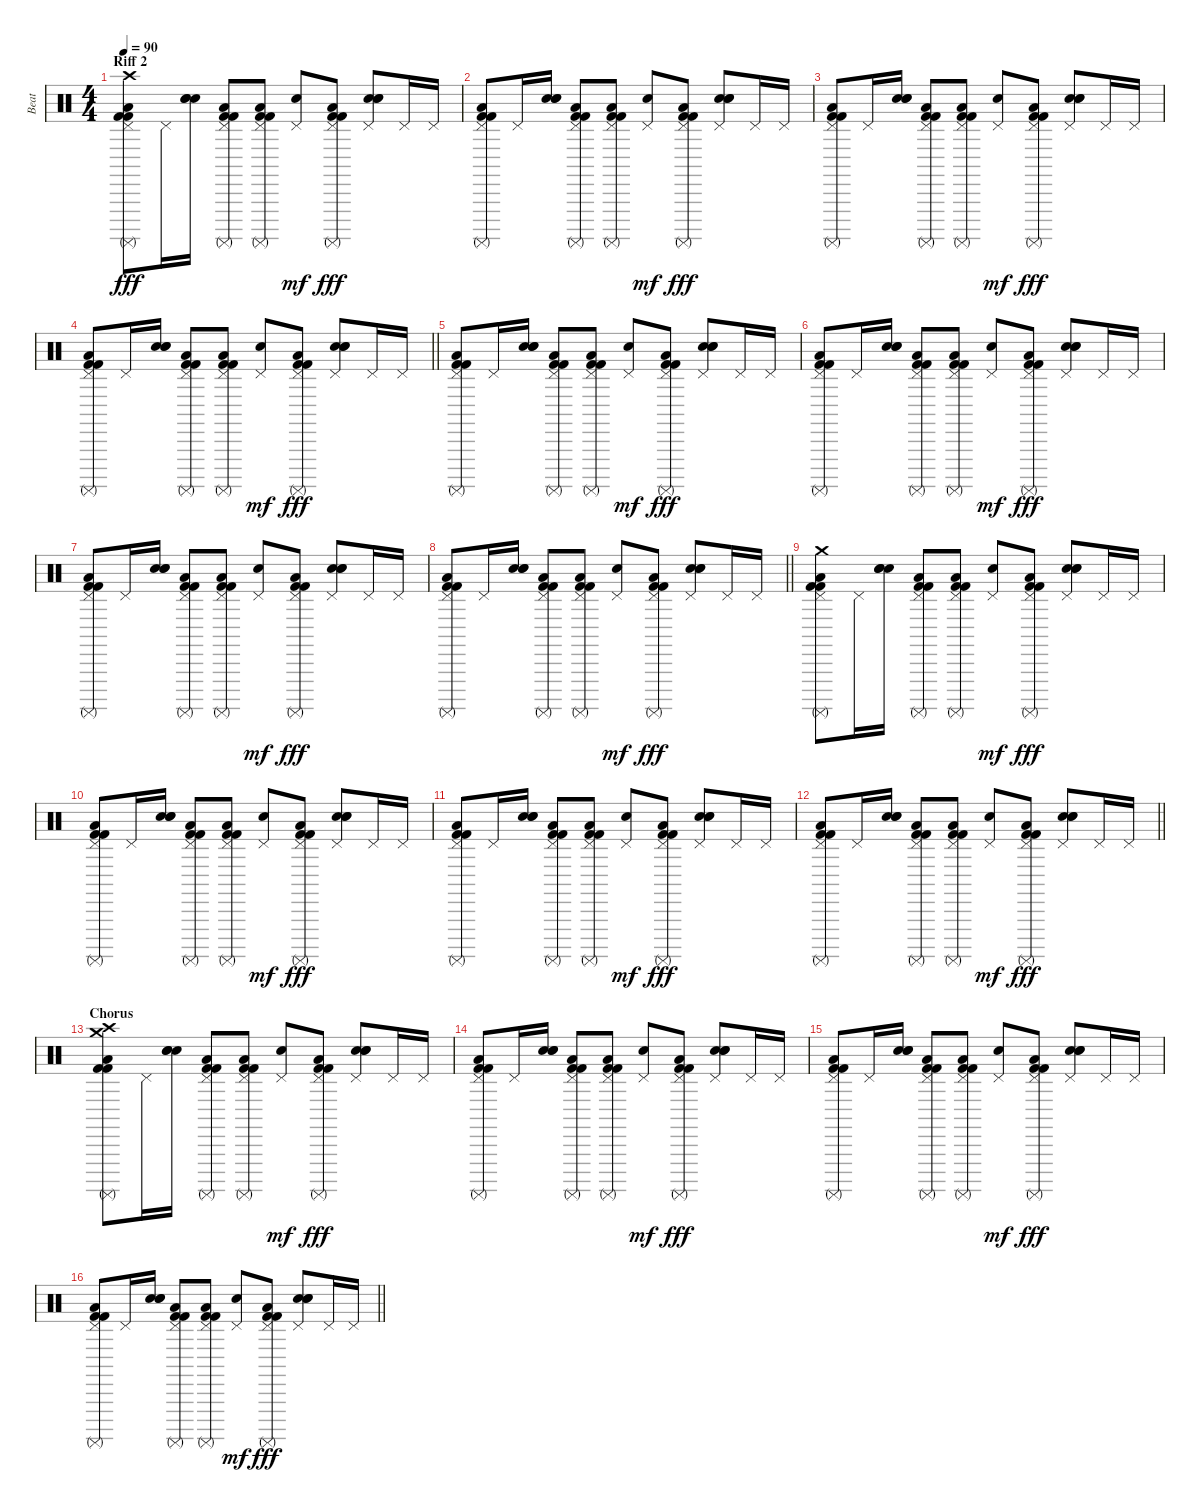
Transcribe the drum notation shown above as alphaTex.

\track ("Beat " "Beat ") {instrument percussion}
\staff {score}
\articulation defaults
\ts (4 4)
\section ("" "Riff 2")
\tempo 90
\clef neutral
\ks c
("Crash high (hit)" "Pedal Hi-Hat (hit)" "Surdo (mute)" "Low Floor Tom (hit)" "Kick (hit) 2" "Kick (hit) 2").8{dy fff} "Pedal Hi-Hat (hit)".16 ("Electric Snare (hit)" "Electric Snare (hit)" "Electric Snare (hit)").16 ("Pedal Hi-Hat (hit)" "Surdo (mute)" "Low Floor Tom (hit)" "Kick (hit) 2" "Kick (hit) 2").8 ("Pedal Hi-Hat (hit)" "Surdo (mute)" "Low Floor Tom (hit)" "Kick (hit) 2" "Kick (hit) 2").8 ("Pedal Hi-Hat (hit)" "Electric Snare (hit)").8{dy mf} ("Pedal Hi-Hat (hit)" "Surdo (mute)" "Low Floor Tom (hit)" "Kick (hit) 2" "Kick (hit) 2").8{dy fff} ("Pedal Hi-Hat (hit)" "Electric Snare (hit)" "Electric Snare (hit)" "Electric Snare (hit)").8 "Pedal Hi-Hat (hit)".16 "Pedal Hi-Hat (hit)".16 |
("Pedal Hi-Hat (hit)" "Surdo (mute)" "Low Floor Tom (hit)" "Kick (hit) 2" "Kick (hit) 2").8 "Pedal Hi-Hat (hit)".16 ("Electric Snare (hit)" "Electric Snare (hit)" "Electric Snare (hit)").16 ("Pedal Hi-Hat (hit)" "Surdo (mute)" "Low Floor Tom (hit)" "Kick (hit) 2" "Kick (hit) 2").8 ("Pedal Hi-Hat (hit)" "Surdo (mute)" "Low Floor Tom (hit)" "Kick (hit) 2" "Kick (hit) 2").8 ("Pedal Hi-Hat (hit)" "Electric Snare (hit)").8{dy mf} ("Pedal Hi-Hat (hit)" "Surdo (mute)" "Low Floor Tom (hit)" "Kick (hit) 2" "Kick (hit) 2").8{dy fff} ("Pedal Hi-Hat (hit)" "Electric Snare (hit)" "Electric Snare (hit)" "Electric Snare (hit)").8 "Pedal Hi-Hat (hit)".16 "Pedal Hi-Hat (hit)".16 |
("Pedal Hi-Hat (hit)" "Surdo (mute)" "Low Floor Tom (hit)" "Kick (hit) 2" "Kick (hit) 2").8 "Pedal Hi-Hat (hit)".16 ("Electric Snare (hit)" "Electric Snare (hit)" "Electric Snare (hit)").16 ("Pedal Hi-Hat (hit)" "Surdo (mute)" "Low Floor Tom (hit)" "Kick (hit) 2" "Kick (hit) 2").8 ("Pedal Hi-Hat (hit)" "Surdo (mute)" "Low Floor Tom (hit)" "Kick (hit) 2" "Kick (hit) 2").8 ("Pedal Hi-Hat (hit)" "Electric Snare (hit)").8{dy mf} ("Pedal Hi-Hat (hit)" "Surdo (mute)" "Low Floor Tom (hit)" "Kick (hit) 2" "Kick (hit) 2").8{dy fff} ("Pedal Hi-Hat (hit)" "Electric Snare (hit)" "Electric Snare (hit)" "Electric Snare (hit)").8 "Pedal Hi-Hat (hit)".16 "Pedal Hi-Hat (hit)".16 |
\barLineRight lightlight
("Pedal Hi-Hat (hit)" "Surdo (mute)" "Low Floor Tom (hit)" "Kick (hit) 2" "Kick (hit) 2").8 "Pedal Hi-Hat (hit)".16 ("Electric Snare (hit)" "Electric Snare (hit)" "Electric Snare (hit)").16 ("Pedal Hi-Hat (hit)" "Surdo (mute)" "Low Floor Tom (hit)" "Kick (hit) 2" "Kick (hit) 2").8 ("Pedal Hi-Hat (hit)" "Surdo (mute)" "Low Floor Tom (hit)" "Kick (hit) 2" "Kick (hit) 2").8 ("Pedal Hi-Hat (hit)" "Electric Snare (hit)").8{dy mf} ("Pedal Hi-Hat (hit)" "Surdo (mute)" "Low Floor Tom (hit)" "Kick (hit) 2" "Kick (hit) 2").8{dy fff} ("Pedal Hi-Hat (hit)" "Electric Snare (hit)" "Electric Snare (hit)" "Electric Snare (hit)").8 "Pedal Hi-Hat (hit)".16 "Pedal Hi-Hat (hit)".16 |
("Pedal Hi-Hat (hit)" "Surdo (mute)" "Low Floor Tom (hit)" "Kick (hit) 2" "Kick (hit) 2").8 "Pedal Hi-Hat (hit)".16 ("Electric Snare (hit)" "Electric Snare (hit)" "Electric Snare (hit)").16 ("Pedal Hi-Hat (hit)" "Surdo (mute)" "Low Floor Tom (hit)" "Kick (hit) 2" "Kick (hit) 2").8 ("Pedal Hi-Hat (hit)" "Surdo (mute)" "Low Floor Tom (hit)" "Kick (hit) 2" "Kick (hit) 2").8 ("Pedal Hi-Hat (hit)" "Electric Snare (hit)").8{dy mf} ("Pedal Hi-Hat (hit)" "Surdo (mute)" "Low Floor Tom (hit)" "Kick (hit) 2" "Kick (hit) 2").8{dy fff} ("Pedal Hi-Hat (hit)" "Electric Snare (hit)" "Electric Snare (hit)" "Electric Snare (hit)").8 "Pedal Hi-Hat (hit)".16 "Pedal Hi-Hat (hit)".16 |
("Pedal Hi-Hat (hit)" "Surdo (mute)" "Low Floor Tom (hit)" "Kick (hit) 2" "Kick (hit) 2").8 "Pedal Hi-Hat (hit)".16 ("Electric Snare (hit)" "Electric Snare (hit)" "Electric Snare (hit)").16 ("Pedal Hi-Hat (hit)" "Surdo (mute)" "Low Floor Tom (hit)" "Kick (hit) 2" "Kick (hit) 2").8 ("Pedal Hi-Hat (hit)" "Surdo (mute)" "Low Floor Tom (hit)" "Kick (hit) 2" "Kick (hit) 2").8 ("Pedal Hi-Hat (hit)" "Electric Snare (hit)").8{dy mf} ("Pedal Hi-Hat (hit)" "Surdo (mute)" "Low Floor Tom (hit)" "Kick (hit) 2" "Kick (hit) 2").8{dy fff} ("Pedal Hi-Hat (hit)" "Electric Snare (hit)" "Electric Snare (hit)" "Electric Snare (hit)").8 "Pedal Hi-Hat (hit)".16 "Pedal Hi-Hat (hit)".16 |
("Pedal Hi-Hat (hit)" "Surdo (mute)" "Low Floor Tom (hit)" "Kick (hit) 2" "Kick (hit) 2").8 "Pedal Hi-Hat (hit)".16 ("Electric Snare (hit)" "Electric Snare (hit)" "Electric Snare (hit)").16 ("Pedal Hi-Hat (hit)" "Surdo (mute)" "Low Floor Tom (hit)" "Kick (hit) 2" "Kick (hit) 2").8 ("Pedal Hi-Hat (hit)" "Surdo (mute)" "Low Floor Tom (hit)" "Kick (hit) 2" "Kick (hit) 2").8 ("Pedal Hi-Hat (hit)" "Electric Snare (hit)").8{dy mf} ("Pedal Hi-Hat (hit)" "Surdo (mute)" "Low Floor Tom (hit)" "Kick (hit) 2" "Kick (hit) 2").8{dy fff} ("Pedal Hi-Hat (hit)" "Electric Snare (hit)" "Electric Snare (hit)" "Electric Snare (hit)").8 "Pedal Hi-Hat (hit)".16 "Pedal Hi-Hat (hit)".16 |
\barLineRight lightlight
("Pedal Hi-Hat (hit)" "Surdo (mute)" "Low Floor Tom (hit)" "Kick (hit) 2" "Kick (hit) 2").8 "Pedal Hi-Hat (hit)".16 ("Electric Snare (hit)" "Electric Snare (hit)" "Electric Snare (hit)").16 ("Pedal Hi-Hat (hit)" "Surdo (mute)" "Low Floor Tom (hit)" "Kick (hit) 2" "Kick (hit) 2").8 ("Pedal Hi-Hat (hit)" "Surdo (mute)" "Low Floor Tom (hit)" "Kick (hit) 2" "Kick (hit) 2").8 ("Pedal Hi-Hat (hit)" "Electric Snare (hit)").8{dy mf} ("Pedal Hi-Hat (hit)" "Surdo (mute)" "Low Floor Tom (hit)" "Kick (hit) 2" "Kick (hit) 2").8{dy fff} ("Pedal Hi-Hat (hit)" "Electric Snare (hit)" "Electric Snare (hit)" "Electric Snare (hit)").8 "Pedal Hi-Hat (hit)".16 "Pedal Hi-Hat (hit)".16 |
("Crash medium (hit)" "Pedal Hi-Hat (hit)" "Surdo (mute)" "Low Floor Tom (hit)" "Kick (hit) 2" "Kick (hit) 2").8 "Pedal Hi-Hat (hit)".16 ("Electric Snare (hit)" "Electric Snare (hit)" "Electric Snare (hit)").16 ("Pedal Hi-Hat (hit)" "Surdo (mute)" "Low Floor Tom (hit)" "Kick (hit) 2" "Kick (hit) 2").8 ("Pedal Hi-Hat (hit)" "Surdo (mute)" "Low Floor Tom (hit)" "Kick (hit) 2" "Kick (hit) 2").8 ("Pedal Hi-Hat (hit)" "Electric Snare (hit)").8{dy mf} ("Pedal Hi-Hat (hit)" "Surdo (mute)" "Low Floor Tom (hit)" "Kick (hit) 2" "Kick (hit) 2").8{dy fff} ("Pedal Hi-Hat (hit)" "Electric Snare (hit)" "Electric Snare (hit)" "Electric Snare (hit)").8 "Pedal Hi-Hat (hit)".16 "Pedal Hi-Hat (hit)".16 |
("Pedal Hi-Hat (hit)" "Surdo (mute)" "Low Floor Tom (hit)" "Kick (hit) 2" "Kick (hit) 2").8 "Pedal Hi-Hat (hit)".16 ("Electric Snare (hit)" "Electric Snare (hit)" "Electric Snare (hit)").16 ("Pedal Hi-Hat (hit)" "Surdo (mute)" "Low Floor Tom (hit)" "Kick (hit) 2" "Kick (hit) 2").8 ("Pedal Hi-Hat (hit)" "Surdo (mute)" "Low Floor Tom (hit)" "Kick (hit) 2" "Kick (hit) 2").8 ("Pedal Hi-Hat (hit)" "Electric Snare (hit)").8{dy mf} ("Pedal Hi-Hat (hit)" "Surdo (mute)" "Low Floor Tom (hit)" "Kick (hit) 2" "Kick (hit) 2").8{dy fff} ("Pedal Hi-Hat (hit)" "Electric Snare (hit)" "Electric Snare (hit)" "Electric Snare (hit)").8 "Pedal Hi-Hat (hit)".16 "Pedal Hi-Hat (hit)".16 |
("Pedal Hi-Hat (hit)" "Surdo (mute)" "Low Floor Tom (hit)" "Kick (hit) 2" "Kick (hit) 2").8 "Pedal Hi-Hat (hit)".16 ("Electric Snare (hit)" "Electric Snare (hit)" "Electric Snare (hit)").16 ("Pedal Hi-Hat (hit)" "Surdo (mute)" "Low Floor Tom (hit)" "Kick (hit) 2" "Kick (hit) 2").8 ("Pedal Hi-Hat (hit)" "Surdo (mute)" "Low Floor Tom (hit)" "Kick (hit) 2" "Kick (hit) 2").8 ("Pedal Hi-Hat (hit)" "Electric Snare (hit)").8{dy mf} ("Pedal Hi-Hat (hit)" "Surdo (mute)" "Low Floor Tom (hit)" "Kick (hit) 2" "Kick (hit) 2").8{dy fff} ("Pedal Hi-Hat (hit)" "Electric Snare (hit)" "Electric Snare (hit)" "Electric Snare (hit)").8 "Pedal Hi-Hat (hit)".16 "Pedal Hi-Hat (hit)".16 |
\barLineRight lightlight
("Pedal Hi-Hat (hit)" "Surdo (mute)" "Low Floor Tom (hit)" "Kick (hit) 2" "Kick (hit) 2").8 "Pedal Hi-Hat (hit)".16 ("Electric Snare (hit)" "Electric Snare (hit)" "Electric Snare (hit)").16 ("Pedal Hi-Hat (hit)" "Surdo (mute)" "Low Floor Tom (hit)" "Kick (hit) 2" "Kick (hit) 2").8 ("Pedal Hi-Hat (hit)" "Surdo (mute)" "Low Floor Tom (hit)" "Kick (hit) 2" "Kick (hit) 2").8 ("Pedal Hi-Hat (hit)" "Electric Snare (hit)").8{dy mf} ("Pedal Hi-Hat (hit)" "Surdo (mute)" "Low Floor Tom (hit)" "Kick (hit) 2" "Kick (hit) 2").8{dy fff} ("Pedal Hi-Hat (hit)" "Electric Snare (hit)" "Electric Snare (hit)" "Electric Snare (hit)").8 "Pedal Hi-Hat (hit)".16 "Pedal Hi-Hat (hit)".16 |
\section ("" "Chorus")
("Crash medium (hit)" "Crash high (hit)" "Surdo (mute)" "Low Floor Tom (hit)" "Kick (hit) 2" "Kick (hit) 2").8 "Pedal Hi-Hat (hit)".16 ("Electric Snare (hit)" "Electric Snare (hit)" "Electric Snare (hit)").16 ("Pedal Hi-Hat (hit)" "Surdo (mute)" "Low Floor Tom (hit)" "Kick (hit) 2" "Kick (hit) 2").8 ("Pedal Hi-Hat (hit)" "Surdo (mute)" "Low Floor Tom (hit)" "Kick (hit) 2" "Kick (hit) 2").8 ("Pedal Hi-Hat (hit)" "Electric Snare (hit)").8{dy mf} ("Pedal Hi-Hat (hit)" "Surdo (mute)" "Low Floor Tom (hit)" "Kick (hit) 2" "Kick (hit) 2").8{dy fff} ("Pedal Hi-Hat (hit)" "Electric Snare (hit)" "Electric Snare (hit)" "Electric Snare (hit)").8 "Pedal Hi-Hat (hit)".16 "Pedal Hi-Hat (hit)".16 |
("Pedal Hi-Hat (hit)" "Surdo (mute)" "Low Floor Tom (hit)" "Kick (hit) 2" "Kick (hit) 2").8 "Pedal Hi-Hat (hit)".16 ("Electric Snare (hit)" "Electric Snare (hit)" "Electric Snare (hit)").16 ("Pedal Hi-Hat (hit)" "Surdo (mute)" "Low Floor Tom (hit)" "Kick (hit) 2" "Kick (hit) 2").8 ("Pedal Hi-Hat (hit)" "Surdo (mute)" "Low Floor Tom (hit)" "Kick (hit) 2" "Kick (hit) 2").8 ("Pedal Hi-Hat (hit)" "Electric Snare (hit)").8{dy mf} ("Pedal Hi-Hat (hit)" "Surdo (mute)" "Low Floor Tom (hit)" "Kick (hit) 2" "Kick (hit) 2").8{dy fff} ("Pedal Hi-Hat (hit)" "Electric Snare (hit)" "Electric Snare (hit)" "Electric Snare (hit)").8 "Pedal Hi-Hat (hit)".16 "Pedal Hi-Hat (hit)".16 |
("Pedal Hi-Hat (hit)" "Surdo (mute)" "Low Floor Tom (hit)" "Kick (hit) 2" "Kick (hit) 2").8 "Pedal Hi-Hat (hit)".16 ("Electric Snare (hit)" "Electric Snare (hit)" "Electric Snare (hit)").16 ("Pedal Hi-Hat (hit)" "Surdo (mute)" "Low Floor Tom (hit)" "Kick (hit) 2" "Kick (hit) 2").8 ("Pedal Hi-Hat (hit)" "Surdo (mute)" "Low Floor Tom (hit)" "Kick (hit) 2" "Kick (hit) 2").8 ("Pedal Hi-Hat (hit)" "Electric Snare (hit)").8{dy mf} ("Pedal Hi-Hat (hit)" "Surdo (mute)" "Low Floor Tom (hit)" "Kick (hit) 2" "Kick (hit) 2").8{dy fff} ("Pedal Hi-Hat (hit)" "Electric Snare (hit)" "Electric Snare (hit)" "Electric Snare (hit)").8 "Pedal Hi-Hat (hit)".16 "Pedal Hi-Hat (hit)".16 |
\barLineRight lightlight
("Pedal Hi-Hat (hit)" "Surdo (mute)" "Low Floor Tom (hit)" "Kick (hit) 2" "Kick (hit) 2").8 "Pedal Hi-Hat (hit)".16 ("Electric Snare (hit)" "Electric Snare (hit)" "Electric Snare (hit)").16 ("Pedal Hi-Hat (hit)" "Surdo (mute)" "Low Floor Tom (hit)" "Kick (hit) 2" "Kick (hit) 2").8 ("Pedal Hi-Hat (hit)" "Surdo (mute)" "Low Floor Tom (hit)" "Kick (hit) 2" "Kick (hit) 2").8 ("Pedal Hi-Hat (hit)" "Electric Snare (hit)").8{dy mf} ("Pedal Hi-Hat (hit)" "Surdo (mute)" "Low Floor Tom (hit)" "Kick (hit) 2" "Kick (hit) 2").8{dy fff} ("Pedal Hi-Hat (hit)" "Electric Snare (hit)" "Electric Snare (hit)" "Electric Snare (hit)").8 "Pedal Hi-Hat (hit)".16 "Pedal Hi-Hat (hit)".16
